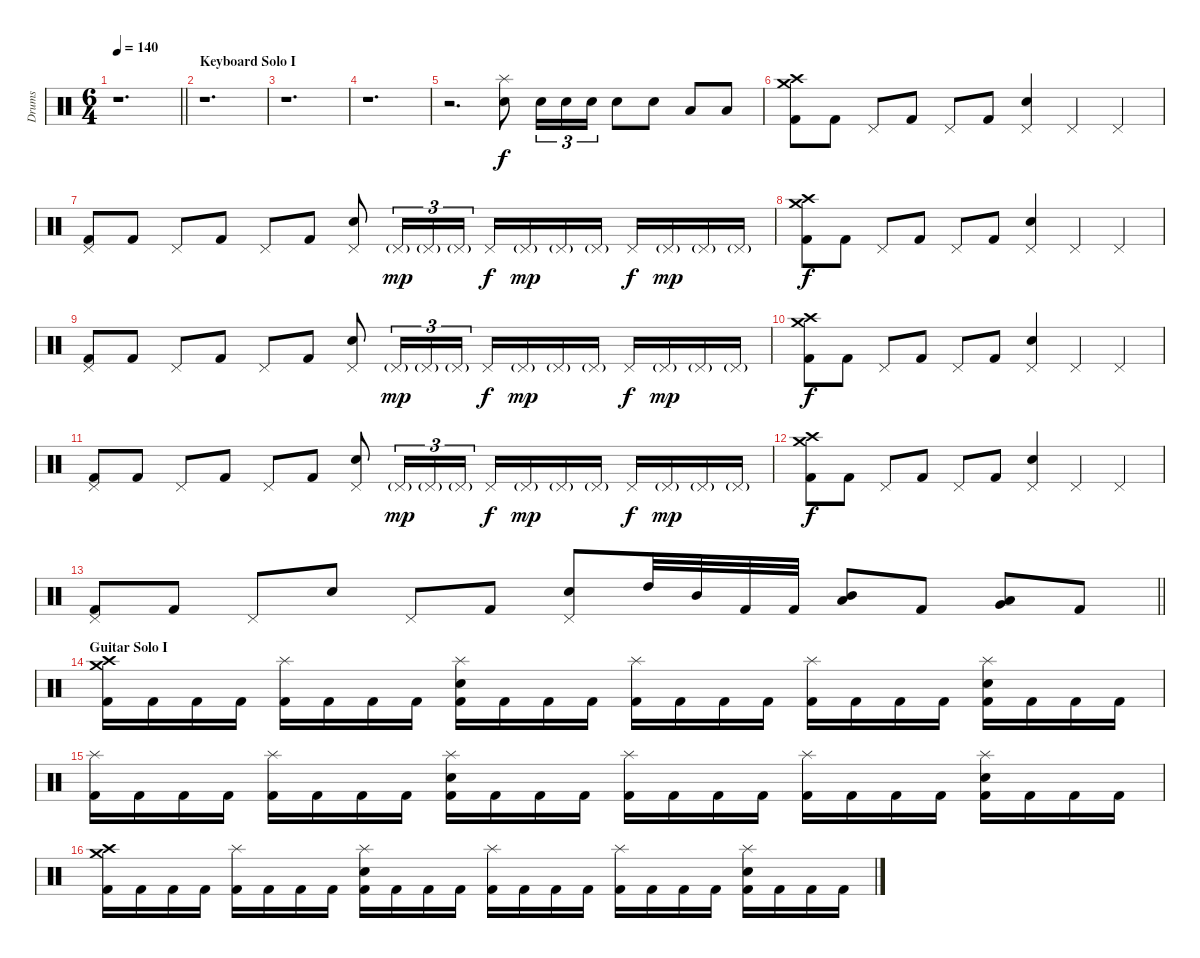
\track ("Drums" "Drums") {instrument percussion}
\staff {score}
\articulation defaults
\ts (6 4)
\tempo 140
\clef neutral
\barLineRight lightlight
\ks c
r.1{d dy f} |
\section ("" "Keyboard Solo I")
r.1{d} |
r.1{d} |
r.1{d} |
r.2{d} ("Splash (hit)" "Electric Snare (hit)").8 "Electric Snare (hit)".16{tu (3 2)} "Electric Snare (hit)".16{tu (3 2)} "Electric Snare (hit)".16{tu (3 2)} "Electric Snare (hit)".8 "Electric Snare (hit)".8 "Low Floor Tom (hit)".8{volume 16} "Low Floor Tom (hit)".8 |
("Crash medium (hit)" "Crash high (hit)" "Kick (hit) 2").8{volume 14} "Kick (hit) 2".8 "Pedal Hi-Hat (hit)".8 "Kick (hit) 2".8 "Pedal Hi-Hat (hit)".8 "Kick (hit) 2".8 ("Pedal Hi-Hat (hit)" "Electric Snare (hit)").4 "Pedal Hi-Hat (hit)".4 "Pedal Hi-Hat (hit)".4 |
("Pedal Hi-Hat (hit)" "Kick (hit) 2").8 "Kick (hit) 2".8 "Pedal Hi-Hat (hit)".8 "Kick (hit) 2".8 "Pedal Hi-Hat (hit)".8 "Kick (hit) 2".8 ("Pedal Hi-Hat (hit)" "Electric Snare (hit)").8 "Pedal Hi-Hat (hit)"{g}.16{tu (3 2) dy mp} "Pedal Hi-Hat (hit)"{g}.16{tu (3 2)} "Pedal Hi-Hat (hit)"{g}.16{tu (3 2) beam splitsecondary} "Pedal Hi-Hat (hit)".16{dy f} "Pedal Hi-Hat (hit)"{g}.16{dy mp} "Pedal Hi-Hat (hit)"{g}.16 "Pedal Hi-Hat (hit)"{g}.16 "Pedal Hi-Hat (hit)".16{dy f} "Pedal Hi-Hat (hit)"{g}.16{dy mp} "Pedal Hi-Hat (hit)"{g}.16 "Pedal Hi-Hat (hit)"{g}.16 |
("Crash medium (hit)" "Crash high (hit)" "Kick (hit) 2").8{dy f} "Kick (hit) 2".8 "Pedal Hi-Hat (hit)".8 "Kick (hit) 2".8 "Pedal Hi-Hat (hit)".8 "Kick (hit) 2".8 ("Pedal Hi-Hat (hit)" "Electric Snare (hit)").4 "Pedal Hi-Hat (hit)".4 "Pedal Hi-Hat (hit)".4 |
("Pedal Hi-Hat (hit)" "Kick (hit) 2").8 "Kick (hit) 2".8 "Pedal Hi-Hat (hit)".8 "Kick (hit) 2".8 "Pedal Hi-Hat (hit)".8 "Kick (hit) 2".8 ("Pedal Hi-Hat (hit)" "Electric Snare (hit)").8 "Pedal Hi-Hat (hit)"{g}.16{tu (3 2) dy mp} "Pedal Hi-Hat (hit)"{g}.16{tu (3 2)} "Pedal Hi-Hat (hit)"{g}.16{tu (3 2) beam splitsecondary} "Pedal Hi-Hat (hit)".16{dy f} "Pedal Hi-Hat (hit)"{g}.16{dy mp} "Pedal Hi-Hat (hit)"{g}.16 "Pedal Hi-Hat (hit)"{g}.16 "Pedal Hi-Hat (hit)".16{dy f} "Pedal Hi-Hat (hit)"{g}.16{dy mp} "Pedal Hi-Hat (hit)"{g}.16 "Pedal Hi-Hat (hit)"{g}.16 |
("Crash medium (hit)" "Crash high (hit)" "Kick (hit) 2").8{dy f} "Kick (hit) 2".8 "Pedal Hi-Hat (hit)".8 "Kick (hit) 2".8 "Pedal Hi-Hat (hit)".8 "Kick (hit) 2".8 ("Pedal Hi-Hat (hit)" "Electric Snare (hit)").4 "Pedal Hi-Hat (hit)".4 "Pedal Hi-Hat (hit)".4 |
("Pedal Hi-Hat (hit)" "Kick (hit) 2").8 "Kick (hit) 2".8 "Pedal Hi-Hat (hit)".8 "Kick (hit) 2".8 "Pedal Hi-Hat (hit)".8 "Kick (hit) 2".8 ("Pedal Hi-Hat (hit)" "Electric Snare (hit)").8 "Pedal Hi-Hat (hit)"{g}.16{tu (3 2) dy mp} "Pedal Hi-Hat (hit)"{g}.16{tu (3 2)} "Pedal Hi-Hat (hit)"{g}.16{tu (3 2) beam splitsecondary} "Pedal Hi-Hat (hit)".16{dy f} "Pedal Hi-Hat (hit)"{g}.16{dy mp} "Pedal Hi-Hat (hit)"{g}.16 "Pedal Hi-Hat (hit)"{g}.16 "Pedal Hi-Hat (hit)".16{dy f} "Pedal Hi-Hat (hit)"{g}.16{dy mp} "Pedal Hi-Hat (hit)"{g}.16 "Pedal Hi-Hat (hit)"{g}.16 |
("Crash medium (hit)" "Crash high (hit)" "Kick (hit) 2").8{dy f} "Kick (hit) 2".8 "Pedal Hi-Hat (hit)".8 "Kick (hit) 2".8 "Pedal Hi-Hat (hit)".8 "Kick (hit) 2".8 ("Pedal Hi-Hat (hit)" "Electric Snare (hit)").4 "Pedal Hi-Hat (hit)".4 "Pedal Hi-Hat (hit)".4 |
\barLineRight lightlight
("Pedal Hi-Hat (hit)" "Kick (hit) 2").8 "Kick (hit) 2".8 "Pedal Hi-Hat (hit)".8 "Electric Snare (hit)".8 "Pedal Hi-Hat (hit)".8 "Kick (hit) 2".8 ("Pedal Hi-Hat (hit)" "Electric Snare (hit)").8 "High Tom (hit)".32 "Mid Tom (hit)".32 "Kick (hit) 2".32 "Kick (hit) 2".32 ("Mid Tom (hit)" "Low Tom (hit)").8 "Kick (hit) 2".8 ("Low Tom (hit)" "Very Low Tom (hit)").8 "Kick (hit) 2".8 |
\section ("" "Guitar Solo I")
("Crash medium (hit)" "Crash high (hit)" "Kick (hit) 2").16 "Kick (hit) 2".16 "Kick (hit) 2".16 "Kick (hit) 2".16 ("Splash (hit)" "Kick (hit) 2").16 "Kick (hit) 2".16 "Kick (hit) 2".16 "Kick (hit) 2".16 ("Splash (hit)" "Electric Snare (hit)" "Kick (hit) 2").16 "Kick (hit) 2".16 "Kick (hit) 2".16 "Kick (hit) 2".16 ("Splash (hit)" "Kick (hit) 2").16 "Kick (hit) 2".16 "Kick (hit) 2".16 "Kick (hit) 2".16 ("Splash (hit)" "Kick (hit) 2").16 "Kick (hit) 2".16 "Kick (hit) 2".16 "Kick (hit) 2".16 ("Splash (hit)" "Electric Snare (hit)" "Kick (hit) 2").16 "Kick (hit) 2".16 "Kick (hit) 2".16 "Kick (hit) 2".16 |
("Splash (hit)" "Kick (hit) 2").16 "Kick (hit) 2".16 "Kick (hit) 2".16 "Kick (hit) 2".16 ("Splash (hit)" "Kick (hit) 2").16 "Kick (hit) 2".16 "Kick (hit) 2".16 "Kick (hit) 2".16 ("Splash (hit)" "Electric Snare (hit)" "Kick (hit) 2").16 "Kick (hit) 2".16 "Kick (hit) 2".16 "Kick (hit) 2".16 ("Splash (hit)" "Kick (hit) 2").16 "Kick (hit) 2".16 "Kick (hit) 2".16 "Kick (hit) 2".16 ("Splash (hit)" "Kick (hit) 2").16 "Kick (hit) 2".16 "Kick (hit) 2".16 "Kick (hit) 2".16 ("Splash (hit)" "Electric Snare (hit)" "Kick (hit) 2").16 "Kick (hit) 2".16 "Kick (hit) 2".16 "Kick (hit) 2".16 |
("Crash medium (hit)" "Crash high (hit)" "Kick (hit) 2").16 "Kick (hit) 2".16 "Kick (hit) 2".16 "Kick (hit) 2".16 ("Splash (hit)" "Kick (hit) 2").16 "Kick (hit) 2".16 "Kick (hit) 2".16 "Kick (hit) 2".16 ("Splash (hit)" "Electric Snare (hit)" "Kick (hit) 2").16 "Kick (hit) 2".16 "Kick (hit) 2".16 "Kick (hit) 2".16 ("Splash (hit)" "Kick (hit) 2").16 "Kick (hit) 2".16 "Kick (hit) 2".16 "Kick (hit) 2".16 ("Splash (hit)" "Kick (hit) 2").16 "Kick (hit) 2".16 "Kick (hit) 2".16 "Kick (hit) 2".16 ("Splash (hit)" "Electric Snare (hit)" "Kick (hit) 2").16 "Kick (hit) 2".16 "Kick (hit) 2".16 "Kick (hit) 2".16
